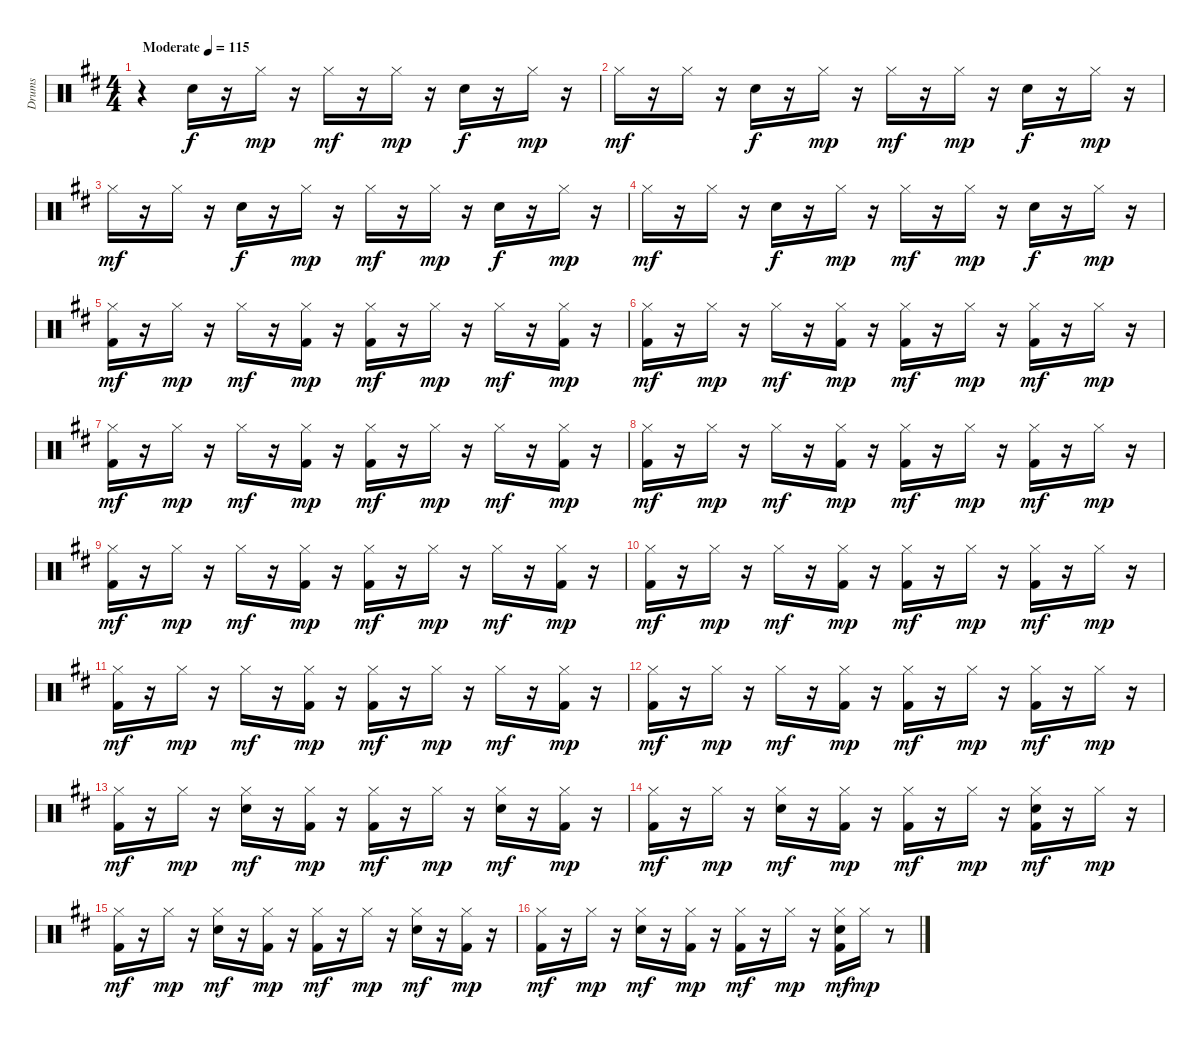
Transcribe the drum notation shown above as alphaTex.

\track ("Drums" "Drums") {instrument percussion}
\staff {score}
\articulation defaults
\ts (4 4)
\tempo (115 "Moderate")
\clef neutral
\ks d
r.4{dy f} "Snare (hit) 2".16 r.16 "Hi-Hat (closed)".16{dy mp} r.16 "Hi-Hat (closed)".16{dy mf} r.16 "Hi-Hat (closed)".16{dy mp} r.16 "Snare (hit) 2".16{dy f} r.16 "Hi-Hat (closed)".16{dy mp} r.16 |
"Hi-Hat (closed)".16{dy mf} r.16 "Hi-Hat (closed)".16 r.16 "Snare (hit) 2".16{dy f} r.16 "Hi-Hat (closed)".16{dy mp} r.16 "Hi-Hat (closed)".16{dy mf} r.16 "Hi-Hat (closed)".16{dy mp} r.16 "Snare (hit) 2".16{dy f} r.16 "Hi-Hat (closed)".16{dy mp} r.16 |
"Hi-Hat (closed)".16{dy mf} r.16 "Hi-Hat (closed)".16 r.16 "Snare (hit) 2".16{dy f} r.16 "Hi-Hat (closed)".16{dy mp} r.16 "Hi-Hat (closed)".16{dy mf} r.16 "Hi-Hat (closed)".16{dy mp} r.16 "Snare (hit) 2".16{dy f} r.16 "Hi-Hat (closed)".16{dy mp} r.16 |
"Hi-Hat (closed)".16{dy mf} r.16 "Hi-Hat (closed)".16 r.16 "Snare (hit) 2".16{dy f} r.16 "Hi-Hat (closed)".16{dy mp} r.16 "Hi-Hat (closed)".16{dy mf} r.16 "Hi-Hat (closed)".16{dy mp} r.16 "Snare (hit) 2".16{dy f} r.16 "Hi-Hat (closed)".16{dy mp} r.16 |
("Kick (hit) 2" "Hi-Hat (closed)").16{dy mf} r.16 "Hi-Hat (closed)".16{dy mp} r.16 "Hi-Hat (closed)".16{dy mf} r.16 ("Kick (hit) 2" "Hi-Hat (closed)").16{dy mp} r.16 ("Kick (hit) 2" "Hi-Hat (closed)").16{dy mf} r.16 "Hi-Hat (closed)".16{dy mp} r.16 "Hi-Hat (closed)".16{dy mf} r.16 ("Kick (hit) 2" "Hi-Hat (closed)").16{dy mp} r.16 |
("Kick (hit) 2" "Hi-Hat (closed)").16{dy mf} r.16 "Hi-Hat (closed)".16{dy mp} r.16 "Hi-Hat (closed)".16{dy mf} r.16 ("Kick (hit) 2" "Hi-Hat (closed)").16{dy mp} r.16 ("Kick (hit) 2" "Hi-Hat (closed)").16{dy mf} r.16 "Hi-Hat (closed)".16{dy mp} r.16 ("Kick (hit) 2" "Hi-Hat (closed)").16{dy mf} r.16 "Hi-Hat (closed)".16{dy mp} r.16 |
("Kick (hit) 2" "Hi-Hat (closed)").16{dy mf} r.16 "Hi-Hat (closed)".16{dy mp} r.16 "Hi-Hat (closed)".16{dy mf} r.16 ("Kick (hit) 2" "Hi-Hat (closed)").16{dy mp} r.16 ("Kick (hit) 2" "Hi-Hat (closed)").16{dy mf} r.16 "Hi-Hat (closed)".16{dy mp} r.16 "Hi-Hat (closed)".16{dy mf} r.16 ("Kick (hit) 2" "Hi-Hat (closed)").16{dy mp} r.16 |
("Kick (hit) 2" "Hi-Hat (closed)").16{dy mf} r.16 "Hi-Hat (closed)".16{dy mp} r.16 "Hi-Hat (closed)".16{dy mf} r.16 ("Kick (hit) 2" "Hi-Hat (closed)").16{dy mp} r.16 ("Kick (hit) 2" "Hi-Hat (closed)").16{dy mf} r.16 "Hi-Hat (closed)".16{dy mp} r.16 ("Kick (hit) 2" "Hi-Hat (closed)").16{dy mf} r.16 "Hi-Hat (closed)".16{dy mp} r.16 |
("Kick (hit) 2" "Hi-Hat (closed)").16{dy mf} r.16 "Hi-Hat (closed)".16{dy mp} r.16 "Hi-Hat (closed)".16{dy mf} r.16 ("Kick (hit) 2" "Hi-Hat (closed)").16{dy mp} r.16 ("Kick (hit) 2" "Hi-Hat (closed)").16{dy mf} r.16 "Hi-Hat (closed)".16{dy mp} r.16 "Hi-Hat (closed)".16{dy mf} r.16 ("Kick (hit) 2" "Hi-Hat (closed)").16{dy mp} r.16 |
("Kick (hit) 2" "Hi-Hat (closed)").16{dy mf} r.16 "Hi-Hat (closed)".16{dy mp} r.16 "Hi-Hat (closed)".16{dy mf} r.16 ("Kick (hit) 2" "Hi-Hat (closed)").16{dy mp} r.16 ("Kick (hit) 2" "Hi-Hat (closed)").16{dy mf} r.16 "Hi-Hat (closed)".16{dy mp} r.16 ("Kick (hit) 2" "Hi-Hat (closed)").16{dy mf} r.16 "Hi-Hat (closed)".16{dy mp} r.16 |
("Kick (hit) 2" "Hi-Hat (closed)").16{dy mf} r.16 "Hi-Hat (closed)".16{dy mp} r.16 "Hi-Hat (closed)".16{dy mf} r.16 ("Kick (hit) 2" "Hi-Hat (closed)").16{dy mp} r.16 ("Kick (hit) 2" "Hi-Hat (closed)").16{dy mf} r.16 "Hi-Hat (closed)".16{dy mp} r.16 "Hi-Hat (closed)".16{dy mf} r.16 ("Kick (hit) 2" "Hi-Hat (closed)").16{dy mp} r.16 |
("Kick (hit) 2" "Hi-Hat (closed)").16{dy mf} r.16 "Hi-Hat (closed)".16{dy mp} r.16 "Hi-Hat (closed)".16{dy mf} r.16 ("Kick (hit) 2" "Hi-Hat (closed)").16{dy mp} r.16 ("Kick (hit) 2" "Hi-Hat (closed)").16{dy mf} r.16 "Hi-Hat (closed)".16{dy mp} r.16 ("Kick (hit) 2" "Hi-Hat (closed)").16{dy mf} r.16 "Hi-Hat (closed)".16{dy mp} r.16 |
("Kick (hit) 2" "Hi-Hat (closed)").16{dy mf} r.16 "Hi-Hat (closed)".16{dy mp} r.16 ("Hi-Hat (closed)" "Snare (hit) 2").16{dy mf} r.16 ("Kick (hit) 2" "Hi-Hat (closed)").16{dy mp} r.16 ("Kick (hit) 2" "Hi-Hat (closed)").16{dy mf} r.16 "Hi-Hat (closed)".16{dy mp} r.16 ("Hi-Hat (closed)" "Snare (hit) 2").16{dy mf} r.16 ("Kick (hit) 2" "Hi-Hat (closed)").16{dy mp} r.16 |
("Kick (hit) 2" "Hi-Hat (closed)").16{dy mf} r.16 "Hi-Hat (closed)".16{dy mp} r.16 ("Hi-Hat (closed)" "Snare (hit) 2").16{dy mf} r.16 ("Kick (hit) 2" "Hi-Hat (closed)").16{dy mp} r.16 ("Kick (hit) 2" "Hi-Hat (closed)").16{dy mf} r.16 "Hi-Hat (closed)".16{dy mp} r.16 ("Kick (hit) 2" "Hi-Hat (closed)" "Snare (hit) 2").16{dy mf} r.16 "Hi-Hat (closed)".16{dy mp} r.16 |
("Kick (hit) 2" "Hi-Hat (closed)").16{dy mf} r.16 "Hi-Hat (closed)".16{dy mp} r.16 ("Hi-Hat (closed)" "Snare (hit) 2").16{dy mf} r.16 ("Kick (hit) 2" "Hi-Hat (closed)").16{dy mp} r.16 ("Kick (hit) 2" "Hi-Hat (closed)").16{dy mf} r.16 "Hi-Hat (closed)".16{dy mp} r.16 ("Hi-Hat (closed)" "Snare (hit) 2").16{dy mf} r.16 ("Kick (hit) 2" "Hi-Hat (closed)").16{dy mp} r.16 |
("Kick (hit) 2" "Hi-Hat (closed)").16{dy mf} r.16 "Hi-Hat (closed)".16{dy mp} r.16 ("Snare (hit) 2" "Hi-Hat (closed)").16{dy mf} r.16 ("Kick (hit) 2" "Hi-Hat (closed)").16{dy mp} r.16 ("Kick (hit) 2" "Hi-Hat (closed)").16{dy mf} r.16 "Hi-Hat (closed)".16{dy mp} r.16 ("Kick (hit) 2" "Hi-Hat (closed)" "Snare (hit) 2").16{dy mf} "Hi-Hat (closed)".16{dy mp} r.8
